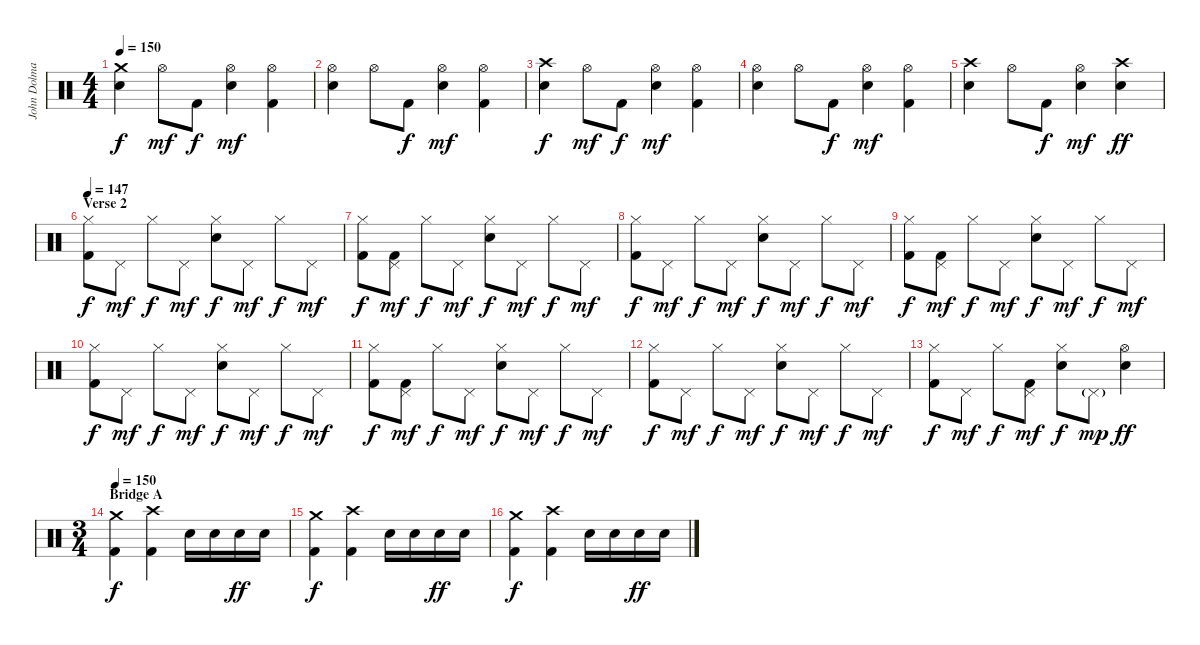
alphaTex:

\track ("John Dolmayan" "John Dolma") {instrument percussion}
\staff {score}
\articulation defaults
\ts (4 4)
\tempo 150
\clef neutral
\ks c
("Crash medium (hit)" "Electric Snare (hit)").4{dy f} "Hi-Hat (open)".8{dy mf} "Kick (hit) 2".8{dy f} ("Hi-Hat (open)" "Electric Snare (hit)").4{dy mf} ("Hi-Hat (open)" "Kick (hit) 2").4 |
("Hi-Hat (open)" "Electric Snare (hit)").4 "Hi-Hat (open)".8 "Kick (hit) 2".8{dy f} ("Hi-Hat (open)" "Electric Snare (hit)").4{dy mf} ("Hi-Hat (open)" "Kick (hit) 2").4 |
("Crash high (hit)" "Electric Snare (hit)").4{dy f} "Hi-Hat (open)".8{dy mf} "Kick (hit) 2".8{dy f} ("Hi-Hat (open)" "Electric Snare (hit)").4{dy mf} ("Hi-Hat (open)" "Kick (hit) 2").4 |
("Hi-Hat (open)" "Electric Snare (hit)").4 "Hi-Hat (open)".8 "Kick (hit) 2".8{dy f} ("Hi-Hat (open)" "Electric Snare (hit)").4{dy mf} ("Hi-Hat (open)" "Kick (hit) 2").4 |
("Crash high (hit)" "Electric Snare (hit)").4 "Hi-Hat (open)".8 "Kick (hit) 2".8{dy f} ("Hi-Hat (open)" "Electric Snare (hit)").4{dy mf} ("Crash high (hit)" "Electric Snare (hit)").4{dy ff} |
\section ("" "Verse 2")
\tempo 147
("Hi-Hat (closed)" "Kick (hit) 2").8{dy f} "Pedal Hi-Hat (hit)".8{dy mf} "Hi-Hat (closed)".8{dy f} "Pedal Hi-Hat (hit)".8{dy mf} ("Hi-Hat (closed)" "Electric Snare (hit)").8{dy f} "Pedal Hi-Hat (hit)".8{dy mf} "Hi-Hat (closed)".8{dy f} "Pedal Hi-Hat (hit)".8{dy mf} |
("Hi-Hat (closed)" "Kick (hit) 2").8{dy f} ("Pedal Hi-Hat (hit)" "Kick (hit) 2").8{dy mf} "Hi-Hat (closed)".8{dy f} "Pedal Hi-Hat (hit)".8{dy mf} ("Hi-Hat (closed)" "Electric Snare (hit)").8{dy f} "Pedal Hi-Hat (hit)".8{dy mf} "Hi-Hat (closed)".8{dy f} "Pedal Hi-Hat (hit)".8{dy mf} |
("Hi-Hat (closed)" "Kick (hit) 2").8{dy f} "Pedal Hi-Hat (hit)".8{dy mf} "Hi-Hat (closed)".8{dy f} "Pedal Hi-Hat (hit)".8{dy mf} ("Hi-Hat (closed)" "Electric Snare (hit)").8{dy f} "Pedal Hi-Hat (hit)".8{dy mf} "Hi-Hat (closed)".8{dy f} "Pedal Hi-Hat (hit)".8{dy mf} |
("Hi-Hat (closed)" "Kick (hit) 2").8{dy f} ("Pedal Hi-Hat (hit)" "Kick (hit) 2").8{dy mf} "Hi-Hat (closed)".8{dy f} "Pedal Hi-Hat (hit)".8{dy mf} ("Hi-Hat (closed)" "Electric Snare (hit)").8{dy f} "Pedal Hi-Hat (hit)".8{dy mf} "Hi-Hat (closed)".8{dy f} "Pedal Hi-Hat (hit)".8{dy mf} |
("Hi-Hat (closed)" "Kick (hit) 2").8{dy f} "Pedal Hi-Hat (hit)".8{dy mf} "Hi-Hat (closed)".8{dy f} "Pedal Hi-Hat (hit)".8{dy mf} ("Hi-Hat (closed)" "Electric Snare (hit)").8{dy f} "Pedal Hi-Hat (hit)".8{dy mf} "Hi-Hat (closed)".8{dy f} "Pedal Hi-Hat (hit)".8{dy mf} |
("Hi-Hat (closed)" "Kick (hit) 2").8{dy f} ("Pedal Hi-Hat (hit)" "Kick (hit) 2").8{dy mf} "Hi-Hat (closed)".8{dy f} "Pedal Hi-Hat (hit)".8{dy mf} ("Hi-Hat (closed)" "Electric Snare (hit)").8{dy f} "Pedal Hi-Hat (hit)".8{dy mf} "Hi-Hat (closed)".8{dy f} "Pedal Hi-Hat (hit)".8{dy mf} |
("Hi-Hat (closed)" "Kick (hit) 2").8{dy f} "Pedal Hi-Hat (hit)".8{dy mf} "Hi-Hat (closed)".8{dy f} "Pedal Hi-Hat (hit)".8{dy mf} ("Hi-Hat (closed)" "Electric Snare (hit)").8{dy f} "Pedal Hi-Hat (hit)".8{dy mf} "Hi-Hat (closed)".8{dy f} "Pedal Hi-Hat (hit)".8{dy mf} |
("Hi-Hat (closed)" "Kick (hit) 2").8{dy f} "Pedal Hi-Hat (hit)".8{dy mf} "Hi-Hat (closed)".8{dy f} ("Pedal Hi-Hat (hit)" "Kick (hit) 2").8{dy mf} ("Hi-Hat (closed)" "Electric Snare (hit)").8{dy f} "Pedal Hi-Hat (hit)"{g}.8{dy mp} ("Hi-Hat (open)" "Electric Snare (hit)").4{dy ff} |
\ts (3 4)
\section ("" "Bridge A")
\tempo 150
("Crash medium (hit)" "Kick (hit) 2").4{dy f} ("Crash high (hit)" "Kick (hit) 2").4 "Electric Snare (hit)".16 "Electric Snare (hit)".16 "Electric Snare (hit)".16{dy ff} "Electric Snare (hit)".16 |
("Crash medium (hit)" "Kick (hit) 2").4{dy f} ("Crash high (hit)" "Kick (hit) 2").4 "Electric Snare (hit)".16 "Electric Snare (hit)".16 "Electric Snare (hit)".16{dy ff} "Electric Snare (hit)".16 |
("Crash medium (hit)" "Kick (hit) 2").4{dy f} ("Crash high (hit)" "Kick (hit) 2").4 "Electric Snare (hit)".16 "Electric Snare (hit)".16 "Electric Snare (hit)".16{dy ff} "Electric Snare (hit)".16
